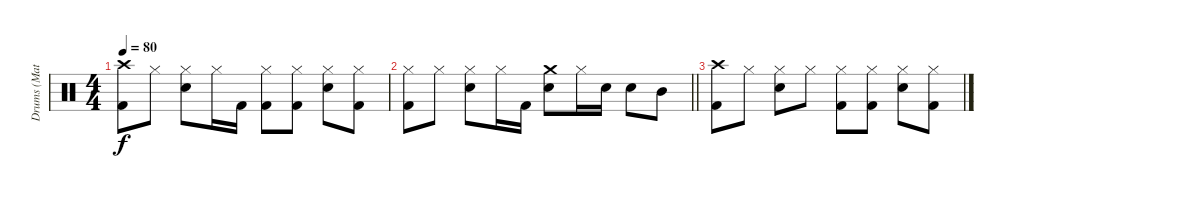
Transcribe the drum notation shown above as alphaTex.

\track ("Drums (Matt)" "Drums (Mat") {instrument percussion}
\staff {score}
\articulation defaults
\ts (4 4)
\tempo 80
\clef neutral
\ks c
("Crash high (hit)" "Kick (hit) 2").8{dy f} "Hi-Hat (closed)".8 ("Hi-Hat (closed)" "Snare (hit) 2").8 "Hi-Hat (closed)".16 "Kick (hit) 2".16 ("Hi-Hat (closed)" "Kick (hit) 2").8 ("Hi-Hat (closed)" "Kick (hit) 2").8 ("Hi-Hat (closed)" "Snare (hit) 2").8 ("Hi-Hat (closed)" "Kick (hit) 2").8 |
\barLineRight lightlight
("Hi-Hat (closed)" "Kick (hit) 2").8 "Hi-Hat (closed)".8 ("Hi-Hat (closed)" "Snare (hit) 2").8 "Hi-Hat (closed)".16 "Kick (hit) 2".16 ("Crash medium (hit)" "Snare (hit) 2").8 "Hi-Hat (closed)".16 "Snare (hit) 2".16 "Snare (hit) 2".8 "Mid Tom (hit)".8 |
\section ("" "")
("Crash high (hit)" "Kick (hit) 2").8 "Hi-Hat (closed)".8 ("Hi-Hat (closed)" "Snare (hit) 2").8 "Hi-Hat (closed)".8 ("Hi-Hat (closed)" "Kick (hit) 2").8 ("Hi-Hat (closed)" "Kick (hit) 2").8 ("Hi-Hat (closed)" "Snare (hit) 2").8 ("Hi-Hat (closed)" "Kick (hit) 2").8
